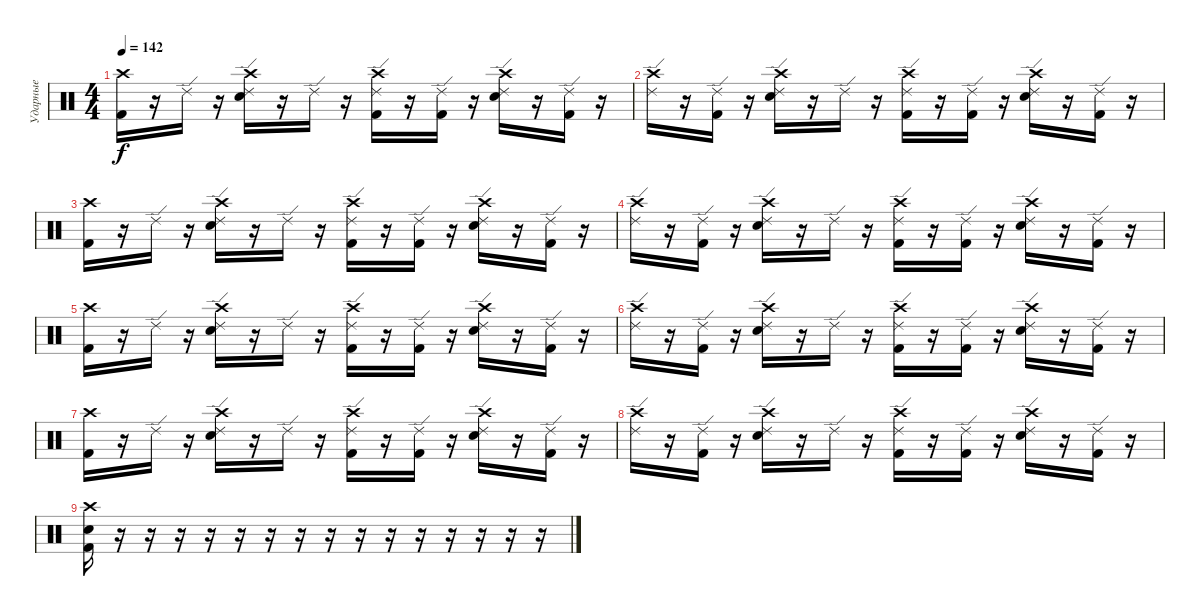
\track ("Ударные" "Ударные") {instrument percussion}
\staff {score}
\articulation defaults
\ts (4 4)
\tempo 142
\clef neutral
\ks c
("Crash high (hit)" "Kick (hit) 2").16{dy f} r.16 "Ride (edge) 2".16 r.16 ("Crash high (hit)" "Ride (edge) 2" "Electric Snare (hit)").16 r.16 "Ride (edge) 2".16 r.16 ("Crash high (hit)" "Ride (edge) 2" "Kick (hit) 2").16 r.16 ("Ride (edge) 2" "Kick (hit) 2").16 r.16 ("Crash high (hit)" "Ride (edge) 2" "Electric Snare (hit)").16 r.16 ("Ride (edge) 2" "Kick (hit) 2").16 r.16 |
("Crash high (hit)" "Ride (edge) 2").16 r.16 ("Ride (edge) 2" "Kick (hit) 2").16 r.16 ("Crash high (hit)" "Ride (edge) 2" "Electric Snare (hit)").16 r.16 "Ride (edge) 2".16 r.16 ("Crash high (hit)" "Ride (edge) 2" "Kick (hit) 2").16 r.16 ("Ride (edge) 2" "Kick (hit) 2").16 r.16 ("Crash high (hit)" "Ride (edge) 2" "Electric Snare (hit)").16 r.16 ("Ride (edge) 2" "Kick (hit) 2").16 r.16 |
("Crash high (hit)" "Kick (hit) 2").16 r.16 "Ride (edge) 2".16 r.16 ("Crash high (hit)" "Ride (edge) 2" "Electric Snare (hit)").16 r.16 "Ride (edge) 2".16 r.16 ("Crash high (hit)" "Ride (edge) 2" "Kick (hit) 2").16 r.16 ("Ride (edge) 2" "Kick (hit) 2").16 r.16 ("Crash high (hit)" "Ride (edge) 2" "Electric Snare (hit)").16 r.16 ("Ride (edge) 2" "Kick (hit) 2").16 r.16 |
("Crash high (hit)" "Ride (edge) 2").16 r.16 ("Ride (edge) 2" "Kick (hit) 2").16 r.16 ("Crash high (hit)" "Ride (edge) 2" "Electric Snare (hit)").16 r.16 "Ride (edge) 2".16 r.16 ("Crash high (hit)" "Ride (edge) 2" "Kick (hit) 2").16 r.16 ("Ride (edge) 2" "Kick (hit) 2").16 r.16 ("Crash high (hit)" "Ride (edge) 2" "Electric Snare (hit)").16 r.16 ("Ride (edge) 2" "Kick (hit) 2").16 r.16 |
("Crash high (hit)" "Kick (hit) 2").16 r.16 "Ride (edge) 2".16 r.16 ("Crash high (hit)" "Ride (edge) 2" "Electric Snare (hit)").16 r.16 "Ride (edge) 2".16 r.16 ("Crash high (hit)" "Ride (edge) 2" "Kick (hit) 2").16 r.16 ("Ride (edge) 2" "Kick (hit) 2").16 r.16 ("Crash high (hit)" "Ride (edge) 2" "Electric Snare (hit)").16 r.16 ("Ride (edge) 2" "Kick (hit) 2").16 r.16 |
("Crash high (hit)" "Ride (edge) 2").16 r.16 ("Ride (edge) 2" "Kick (hit) 2").16 r.16 ("Crash high (hit)" "Ride (edge) 2" "Electric Snare (hit)").16 r.16 "Ride (edge) 2".16 r.16 ("Crash high (hit)" "Ride (edge) 2" "Kick (hit) 2").16 r.16 ("Ride (edge) 2" "Kick (hit) 2").16 r.16 ("Crash high (hit)" "Ride (edge) 2" "Electric Snare (hit)").16 r.16 ("Ride (edge) 2" "Kick (hit) 2").16 r.16 |
("Crash high (hit)" "Kick (hit) 2").16 r.16 "Ride (edge) 2".16 r.16 ("Crash high (hit)" "Ride (edge) 2" "Electric Snare (hit)").16 r.16 "Ride (edge) 2".16 r.16 ("Crash high (hit)" "Ride (edge) 2" "Kick (hit) 2").16 r.16 ("Ride (edge) 2" "Kick (hit) 2").16 r.16 ("Crash high (hit)" "Ride (edge) 2" "Electric Snare (hit)").16 r.16 ("Ride (edge) 2" "Kick (hit) 2").16 r.16 |
("Crash high (hit)" "Ride (edge) 2").16 r.16 ("Ride (edge) 2" "Kick (hit) 2").16 r.16 ("Crash high (hit)" "Ride (edge) 2" "Electric Snare (hit)").16 r.16 "Ride (edge) 2".16 r.16 ("Crash high (hit)" "Ride (edge) 2" "Kick (hit) 2").16 r.16 ("Ride (edge) 2" "Kick (hit) 2").16 r.16 ("Crash high (hit)" "Ride (edge) 2" "Electric Snare (hit)").16 r.16 ("Ride (edge) 2" "Kick (hit) 2").16 r.16 |
("Crash high (hit)" "Electric Snare (hit)" "Kick (hit) 2").16 r.16 r.16 r.16 r.16 r.16 r.16 r.16 r.16 r.16 r.16 r.16 r.16 r.16 r.16 r.16
